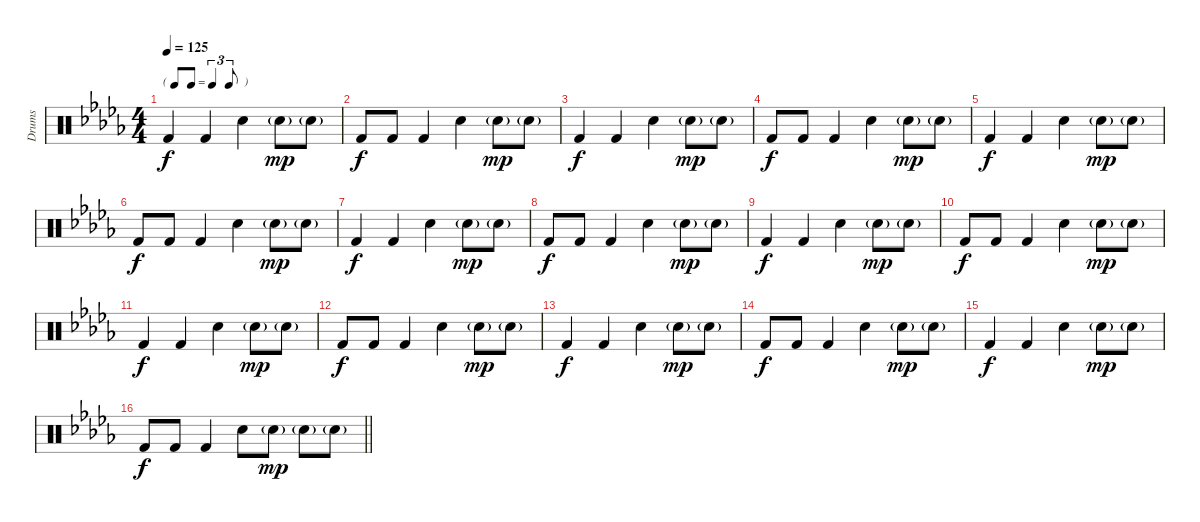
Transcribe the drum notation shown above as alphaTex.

\track ("Drums" "Drums") {instrument percussion}
\staff {score}
\articulation defaults
\ts (4 4)
\tf triplet8th
\tempo 125
\clef neutral
\ks db "Kick (hit) 2".4{dy f} "Kick (hit) 2".4 "Snare (hit) 2".4 "Snare (hit) 2"{g}.8{dy mp} "Snare (hit) 2"{g}.8
|
"Kick (hit) 2".8{dy f} "Kick (hit) 2".8 "Kick (hit) 2".4 "Snare (hit) 2".4 "Snare (hit) 2"{g}.8{dy mp} "Snare (hit) 2"{g}.8 |
"Kick (hit) 2".4{dy f} "Kick (hit) 2".4 "Snare (hit) 2".4 "Snare (hit) 2"{g}.8{dy mp} "Snare (hit) 2"{g}.8 |
"Kick (hit) 2".8{dy f} "Kick (hit) 2".8 "Kick (hit) 2".4 "Snare (hit) 2".4 "Snare (hit) 2"{g}.8{dy mp} "Snare (hit) 2"{g}.8 |
"Kick (hit) 2".4{dy f} "Kick (hit) 2".4 "Snare (hit) 2".4 "Snare (hit) 2"{g}.8{dy mp} "Snare (hit) 2"{g}.8 |
"Kick (hit) 2".8{dy f} "Kick (hit) 2".8 "Kick (hit) 2".4 "Snare (hit) 2".4 "Snare (hit) 2"{g}.8{dy mp} "Snare (hit) 2"{g}.8 |
"Kick (hit) 2".4{dy f} "Kick (hit) 2".4 "Snare (hit) 2".4 "Snare (hit) 2"{g}.8{dy mp} "Snare (hit) 2"{g}.8 |
"Kick (hit) 2".8{dy f} "Kick (hit) 2".8 "Kick (hit) 2".4 "Snare (hit) 2".4 "Snare (hit) 2"{g}.8{dy mp} "Snare (hit) 2"{g}.8 |
"Kick (hit) 2".4{dy f} "Kick (hit) 2".4 "Snare (hit) 2".4 "Snare (hit) 2"{g}.8{dy mp} "Snare (hit) 2"{g}.8 |
"Kick (hit) 2".8{dy f} "Kick (hit) 2".8 "Kick (hit) 2".4 "Snare (hit) 2".4 "Snare (hit) 2"{g}.8{dy mp} "Snare (hit) 2"{g}.8 |
"Kick (hit) 2".4{dy f} "Kick (hit) 2".4 "Snare (hit) 2".4 "Snare (hit) 2"{g}.8{dy mp} "Snare (hit) 2"{g}.8 |
"Kick (hit) 2".8{dy f} "Kick (hit) 2".8 "Kick (hit) 2".4 "Snare (hit) 2".4 "Snare (hit) 2"{g}.8{dy mp} "Snare (hit) 2"{g}.8 |
"Kick (hit) 2".4{dy f} "Kick (hit) 2".4 "Snare (hit) 2".4 "Snare (hit) 2"{g}.8{dy mp} "Snare (hit) 2"{g}.8 |
"Kick (hit) 2".8{dy f} "Kick (hit) 2".8 "Kick (hit) 2".4 "Snare (hit) 2".4 "Snare (hit) 2"{g}.8{dy mp} "Snare (hit) 2"{g}.8 |
"Kick (hit) 2".4{dy f} "Kick (hit) 2".4 "Snare (hit) 2".4 "Snare (hit) 2"{g}.8{dy mp} "Snare (hit) 2"{g}.8 |
\barLineRight lightlight "Kick (hit) 2".8{dy f} "Kick (hit) 2".8 "Kick (hit) 2".4 "Snare (hit) 2".8 "Snare (hit) 2"{g}.8{dy mp} "Snare (hit) 2"{g}.8 "Snare (hit) 2"{g}.8
